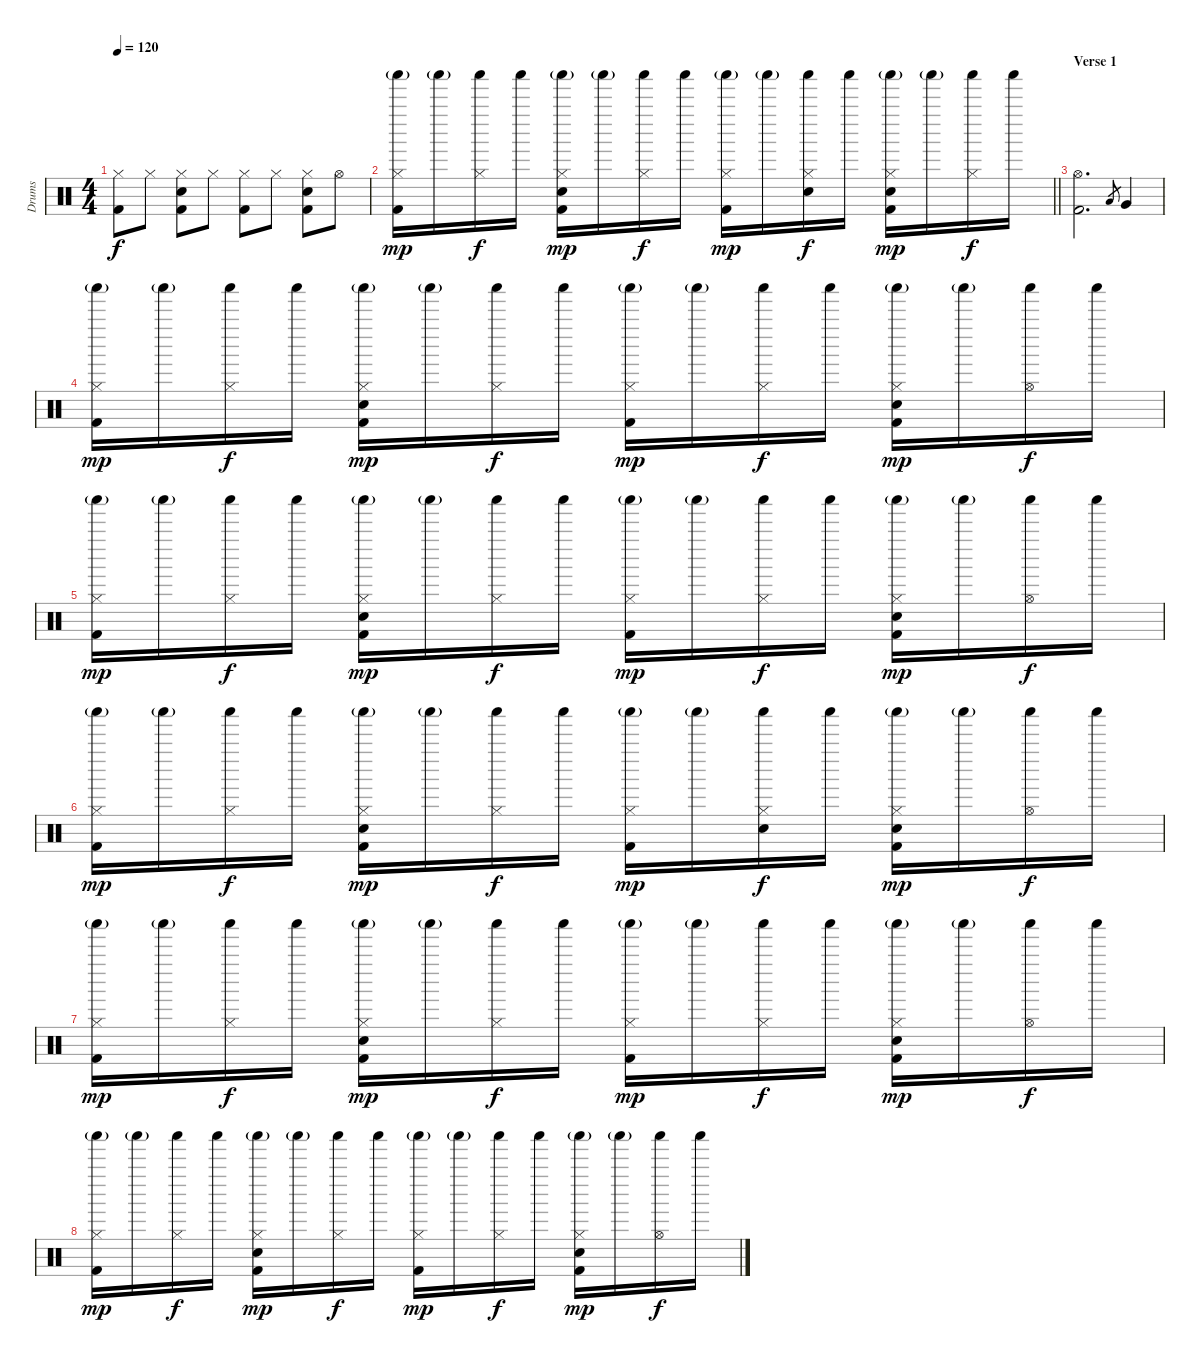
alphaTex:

\track ("Drums" "Drums") {instrument percussion}
\staff {score}
\articulation defaults
\ts (4 4)
\tempo 120
\clef neutral
\ks c
("Hi-Hat (closed)" "Kick (hit) 2").8{dy f} "Hi-Hat (closed)".8 ("Hi-Hat (closed)" "Electric Snare (hit)" "Kick (hit) 2").8 "Hi-Hat (closed)".8 ("Hi-Hat (closed)" "Kick (hit) 2").8 "Hi-Hat (closed)".8 ("Hi-Hat (closed)" "Electric Snare (hit)" "Kick (hit) 2").8 "Hi-Hat (open)".8 |
\barLineRight lightlight
("Hi-Hat (closed)" "Shaker (hit)"{g} "Kick (hit) 2").16{dy mp} "Shaker (hit)"{g}.16 ("Hi-Hat (closed)" "Shaker (hit)").16{dy f} "Shaker (hit)".16 ("Hi-Hat (closed)" "Shaker (hit)"{g} "Electric Snare (hit)" "Kick (hit) 2").16{dy mp} "Shaker (hit)"{g}.16 ("Hi-Hat (closed)" "Shaker (hit)").16{dy f} "Shaker (hit)".16 ("Hi-Hat (closed)" "Shaker (hit)"{g} "Kick (hit) 2").16{dy mp} "Shaker (hit)"{g}.16 ("Hi-Hat (closed)" "Shaker (hit)" "Electric Snare (hit)").16{dy f} "Shaker (hit)".16 ("Hi-Hat (closed)" "Shaker (hit)"{g} "Electric Snare (hit)" "Kick (hit) 2").16{dy mp} "Shaker (hit)"{g}.16 ("Hi-Hat (closed)" "Shaker (hit)").16{dy f} "Shaker (hit)".16 |
\section ("" "Verse 1")
("Hi-Hat (open)" "Kick (hit) 2").2{d} "Low Tom (hit)".8{gr} "Very Low Tom (hit)".4 |
("Hi-Hat (closed)" "Shaker (hit)"{g} "Kick (hit) 2").16{dy mp} "Shaker (hit)"{g}.16 ("Hi-Hat (closed)" "Shaker (hit)").16{dy f} "Shaker (hit)".16 ("Hi-Hat (closed)" "Shaker (hit)"{g} "Electric Snare (hit)" "Kick (hit) 2").16{dy mp} "Shaker (hit)"{g}.16 ("Hi-Hat (closed)" "Shaker (hit)").16{dy f} "Shaker (hit)".16 ("Hi-Hat (closed)" "Shaker (hit)"{g} "Kick (hit) 2").16{dy mp} "Shaker (hit)"{g}.16 ("Hi-Hat (closed)" "Shaker (hit)").16{dy f} "Shaker (hit)".16 ("Hi-Hat (closed)" "Shaker (hit)"{g} "Electric Snare (hit)" "Kick (hit) 2").16{dy mp} "Shaker (hit)"{g}.16 ("Hi-Hat (open)" "Shaker (hit)").16{dy f} "Shaker (hit)".16 |
("Hi-Hat (closed)" "Shaker (hit)"{g} "Kick (hit) 2").16{dy mp} "Shaker (hit)"{g}.16 ("Hi-Hat (closed)" "Shaker (hit)").16{dy f} "Shaker (hit)".16 ("Hi-Hat (closed)" "Shaker (hit)"{g} "Electric Snare (hit)" "Kick (hit) 2").16{dy mp} "Shaker (hit)"{g}.16 ("Hi-Hat (closed)" "Shaker (hit)").16{dy f} "Shaker (hit)".16 ("Hi-Hat (closed)" "Shaker (hit)"{g} "Kick (hit) 2").16{dy mp} "Shaker (hit)"{g}.16 ("Hi-Hat (closed)" "Shaker (hit)").16{dy f} "Shaker (hit)".16 ("Hi-Hat (closed)" "Shaker (hit)"{g} "Electric Snare (hit)" "Kick (hit) 2").16{dy mp} "Shaker (hit)"{g}.16 ("Hi-Hat (open)" "Shaker (hit)").16{dy f} "Shaker (hit)".16 |
("Hi-Hat (closed)" "Shaker (hit)"{g} "Kick (hit) 2").16{dy mp} "Shaker (hit)"{g}.16 ("Hi-Hat (closed)" "Shaker (hit)").16{dy f} "Shaker (hit)".16 ("Hi-Hat (closed)" "Shaker (hit)"{g} "Electric Snare (hit)" "Kick (hit) 2").16{dy mp} "Shaker (hit)"{g}.16 ("Hi-Hat (closed)" "Shaker (hit)").16{dy f} "Shaker (hit)".16 ("Hi-Hat (closed)" "Shaker (hit)"{g} "Kick (hit) 2").16{dy mp} "Shaker (hit)"{g}.16 ("Hi-Hat (closed)" "Shaker (hit)" "Electric Snare (hit)").16{dy f} "Shaker (hit)".16 ("Hi-Hat (closed)" "Shaker (hit)"{g} "Electric Snare (hit)" "Kick (hit) 2").16{dy mp} "Shaker (hit)"{g}.16 ("Hi-Hat (open)" "Shaker (hit)").16{dy f} "Shaker (hit)".16 |
("Hi-Hat (closed)" "Shaker (hit)"{g} "Kick (hit) 2").16{dy mp} "Shaker (hit)"{g}.16 ("Hi-Hat (closed)" "Shaker (hit)").16{dy f} "Shaker (hit)".16 ("Hi-Hat (closed)" "Shaker (hit)"{g} "Electric Snare (hit)" "Kick (hit) 2").16{dy mp} "Shaker (hit)"{g}.16 ("Hi-Hat (closed)" "Shaker (hit)").16{dy f} "Shaker (hit)".16 ("Hi-Hat (closed)" "Shaker (hit)"{g} "Kick (hit) 2").16{dy mp} "Shaker (hit)"{g}.16 ("Hi-Hat (closed)" "Shaker (hit)").16{dy f} "Shaker (hit)".16 ("Hi-Hat (closed)" "Shaker (hit)"{g} "Electric Snare (hit)" "Kick (hit) 2").16{dy mp} "Shaker (hit)"{g}.16 ("Hi-Hat (open)" "Shaker (hit)").16{dy f} "Shaker (hit)".16 |
("Hi-Hat (closed)" "Shaker (hit)"{g} "Kick (hit) 2").16{dy mp} "Shaker (hit)"{g}.16 ("Hi-Hat (closed)" "Shaker (hit)").16{dy f} "Shaker (hit)".16 ("Hi-Hat (closed)" "Shaker (hit)"{g} "Electric Snare (hit)" "Kick (hit) 2").16{dy mp} "Shaker (hit)"{g}.16 ("Hi-Hat (closed)" "Shaker (hit)").16{dy f} "Shaker (hit)".16 ("Hi-Hat (closed)" "Shaker (hit)"{g} "Kick (hit) 2").16{dy mp} "Shaker (hit)"{g}.16 ("Hi-Hat (closed)" "Shaker (hit)").16{dy f} "Shaker (hit)".16 ("Hi-Hat (closed)" "Shaker (hit)"{g} "Electric Snare (hit)" "Kick (hit) 2").16{dy mp} "Shaker (hit)"{g}.16 ("Hi-Hat (open)" "Shaker (hit)").16{dy f} "Shaker (hit)".16
